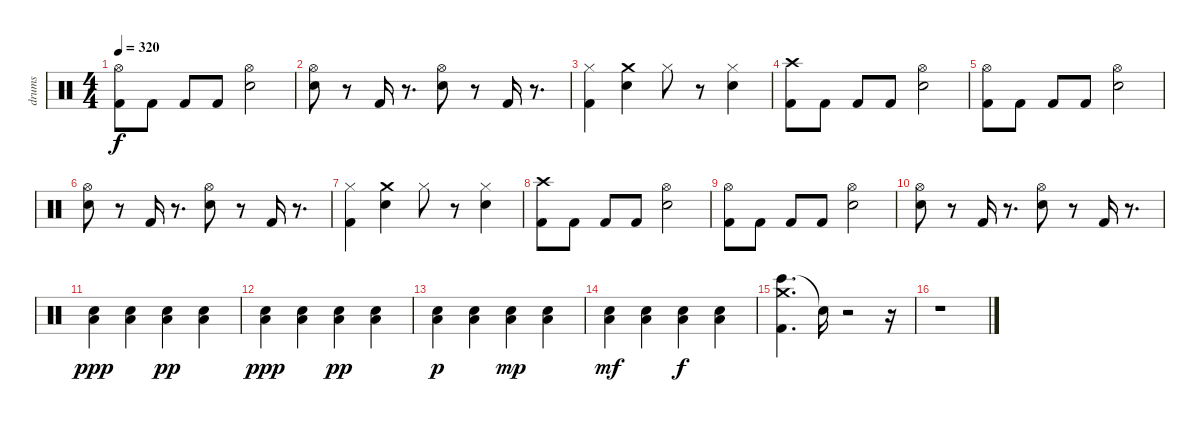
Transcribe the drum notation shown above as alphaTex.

\track ("drums" "drums") {instrument percussion}
\staff {score}
\articulation defaults
\ts (4 4)
\tempo 320
\clef neutral
\ks c
("Hi-Hat (open)" "Kick (hit) 2").8{dy f} "Kick (hit) 2".8 "Kick (hit) 2".8 "Kick (hit) 2".8 ("Hi-Hat (open)" "Snare (hit) 2").2 |
("Hi-Hat (open)" "Snare (hit) 2").8 r.8 "Kick (hit) 2".16 r.8{d} ("Hi-Hat (open)" "Snare (hit) 2").8 r.8 "Kick (hit) 2".16 r.8{d} |
("Hi-Hat (closed)" "Kick (hit) 2").4 ("Snare (hit) 2" "Crash medium (hit)").4 "Hi-Hat (closed)".8 r.8 ("Hi-Hat (closed)" "Snare (hit) 2").4 |
("Crash high (hit)" "Kick (hit) 2").8 "Kick (hit) 2".8 "Kick (hit) 2".8 "Kick (hit) 2".8 ("Hi-Hat (open)" "Snare (hit) 2").2 |
("Hi-Hat (open)" "Kick (hit) 2").8 "Kick (hit) 2".8 "Kick (hit) 2".8 "Kick (hit) 2".8 ("Hi-Hat (open)" "Snare (hit) 2").2 |
("Hi-Hat (open)" "Snare (hit) 2").8 r.8 "Kick (hit) 2".16 r.8{d} ("Hi-Hat (open)" "Snare (hit) 2").8 r.8 "Kick (hit) 2".16 r.8{d} |
("Hi-Hat (closed)" "Kick (hit) 2").4 ("Snare (hit) 2" "Crash medium (hit)").4 "Hi-Hat (closed)".8 r.8 ("Hi-Hat (closed)" "Snare (hit) 2").4 |
("Crash high (hit)" "Kick (hit) 2").8 "Kick (hit) 2".8 "Kick (hit) 2".8 "Kick (hit) 2".8 ("Hi-Hat (open)" "Snare (hit) 2").2 |
("Hi-Hat (open)" "Kick (hit) 2").8 "Kick (hit) 2".8 "Kick (hit) 2".8 "Kick (hit) 2".8 ("Hi-Hat (open)" "Snare (hit) 2").2 |
("Hi-Hat (open)" "Snare (hit) 2").8 r.8 "Kick (hit) 2".16 r.8{d} ("Hi-Hat (open)" "Snare (hit) 2").8 r.8 "Kick (hit) 2".16 r.8{d} |
("Low Floor Tom (hit)" "Snare (hit) 2").4{dy ppp} ("Low Floor Tom (hit)" "Snare (hit) 2").4 ("Low Floor Tom (hit)" "Snare (hit) 2").4{dy pp} ("Low Floor Tom (hit)" "Snare (hit) 2").4 |
("Low Floor Tom (hit)" "Snare (hit) 2").4{dy ppp} ("Low Floor Tom (hit)" "Snare (hit) 2").4 ("Low Floor Tom (hit)" "Snare (hit) 2").4{dy pp} ("Low Floor Tom (hit)" "Snare (hit) 2").4 |
("Low Floor Tom (hit)" "Snare (hit) 2").4{dy p} ("Low Floor Tom (hit)" "Snare (hit) 2").4 ("Low Floor Tom (hit)" "Snare (hit) 2").4{dy mp} ("Low Floor Tom (hit)" "Snare (hit) 2").4 |
("Low Floor Tom (hit)" "Snare (hit) 2").4{dy mf} ("Low Floor Tom (hit)" "Snare (hit) 2").4 ("Low Floor Tom (hit)" "Snare (hit) 2").4{dy f} ("Low Floor Tom (hit)" "Snare (hit) 2").4 |
("Bongo High (hit)" "Kick (hit) 2" "Crash medium (hit)").4{d volume 11 balance 8} "Snare (hit)"{t}.16 r.2 r.16 |
r.1
